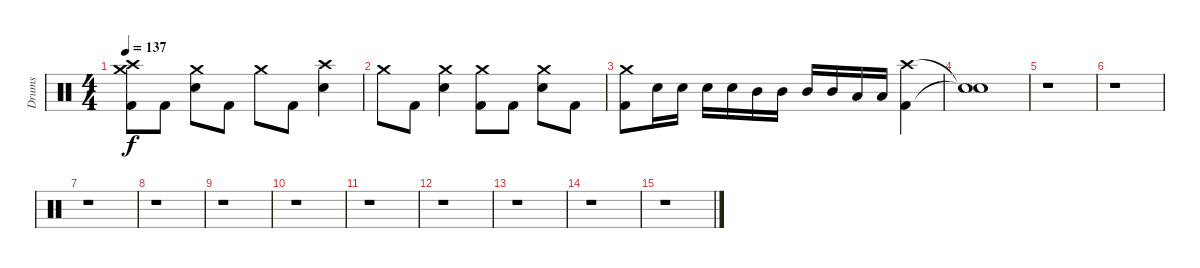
\track ("Drums" "Drums") {instrument percussion}
\staff {score}
\articulation defaults
\ts (4 4)
\tempo 137
\clef neutral
\ks c
("Crash medium (hit)" "Crash high (hit)" "Kick (hit) 2").8{dy f} "Kick (hit) 2".8 ("Crash medium (hit)" "Electric Snare (hit)").8 "Kick (hit) 2".8 "Crash medium (hit)".8 "Kick (hit) 2".8 ("Crash high (hit)" "Electric Snare (hit)").4 |
"Crash medium (hit)".8 "Kick (hit) 2".8 ("Crash medium (hit)" "Electric Snare (hit)").4 ("Crash medium (hit)" "Kick (hit) 2").8 "Kick (hit) 2".8 ("Crash medium (hit)" "Electric Snare (hit)").8 "Kick (hit) 2".8 |
("Crash medium (hit)" "Kick (hit) 2").8 "Electric Snare (hit)".16 "Electric Snare (hit)".16 "Electric Snare (hit)".16 "Electric Snare (hit)".16 "Mid Tom (hit)".16 "Mid Tom (hit)".16 "Mid Tom (hit)".16 "Mid Tom (hit)".16 "Low Tom (hit)".16 "Low Tom (hit)".16 ("Crash high (hit)" "Kick (hit) 2").4 |
("Snare (hit)"{t} "Snare (hit)"{t}).1 |
r.1 |
r.1 |
r.1 |
r.1 |
r.1 |
r.1 |
r.1 |
r.1 |
r.1 |
r.1 |
r.1
